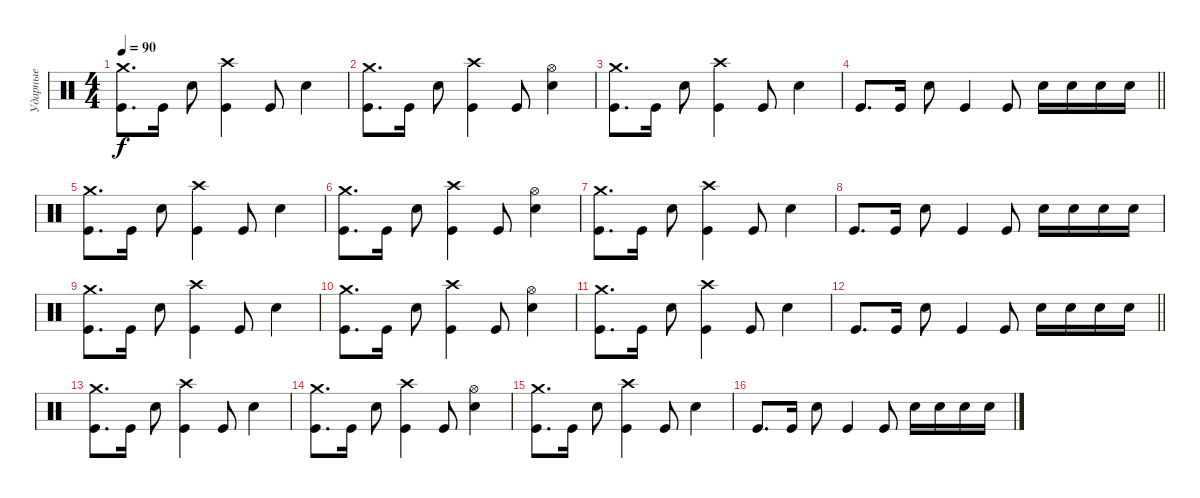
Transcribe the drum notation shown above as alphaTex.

\track ("Ударные" "Ударные") {instrument percussion}
\staff {score}
\articulation defaults
\ts (4 4)
\tempo 90
\clef neutral
\ks c
("Crash medium (hit)" "Kick (hit)").8{d dy f} "Kick (hit)".16 "Snare (hit) 2".8 ("Crash high (hit)" "Kick (hit)").4 "Kick (hit)".8 "Snare (hit) 2".4 |
("Crash medium (hit)" "Kick (hit)").8{d} "Kick (hit)".16 "Snare (hit) 2".8 ("Crash high (hit)" "Kick (hit)").4 "Kick (hit)".8 ("Hi-Hat (open)" "Snare (hit) 2").4 |
("Crash medium (hit)" "Kick (hit)").8{d} "Kick (hit)".16 "Snare (hit) 2".8 ("Crash high (hit)" "Kick (hit)").4 "Kick (hit)".8 "Snare (hit) 2".4 |
\barLineRight lightlight "Kick (hit)".8{d} "Kick (hit)".16 "Snare (hit) 2".8 "Kick (hit)".4 "Kick (hit)".8 "Snare (hit) 2".16 "Snare (hit) 2".16 "Snare (hit) 2".16 "Snare (hit) 2".16
|
("Crash medium (hit)" "Kick (hit)").8{d} "Kick (hit)".16 "Snare (hit) 2".8 ("Crash high (hit)" "Kick (hit)").4 "Kick (hit)".8 "Snare (hit) 2".4 |
("Crash medium (hit)" "Kick (hit)").8{d} "Kick (hit)".16 "Snare (hit) 2".8 ("Crash high (hit)" "Kick (hit)").4 "Kick (hit)".8 ("Hi-Hat (open)" "Snare (hit) 2").4 |
("Crash medium (hit)" "Kick (hit)").8{d} "Kick (hit)".16 "Snare (hit) 2".8 ("Crash high (hit)" "Kick (hit)").4 "Kick (hit)".8 "Snare (hit) 2".4 |
"Kick (hit)".8{d} "Kick (hit)".16 "Snare (hit) 2".8 "Kick (hit)".4 "Kick (hit)".8 "Snare (hit) 2".16 "Snare (hit) 2".16 "Snare (hit) 2".16 "Snare (hit) 2".16 |
("Crash medium (hit)" "Kick (hit)").8{d} "Kick (hit)".16 "Snare (hit) 2".8 ("Crash high (hit)" "Kick (hit)").4 "Kick (hit)".8 "Snare (hit) 2".4 |
("Crash medium (hit)" "Kick (hit)").8{d} "Kick (hit)".16 "Snare (hit) 2".8 ("Crash high (hit)" "Kick (hit)").4 "Kick (hit)".8 ("Hi-Hat (open)" "Snare (hit) 2").4 |
("Crash medium (hit)" "Kick (hit)").8{d} "Kick (hit)".16 "Snare (hit) 2".8 ("Crash high (hit)" "Kick (hit)").4 "Kick (hit)".8 "Snare (hit) 2".4 |
\barLineRight lightlight "Kick (hit)".8{d} "Kick (hit)".16 "Snare (hit) 2".8 "Kick (hit)".4 "Kick (hit)".8 "Snare (hit) 2".16 "Snare (hit) 2".16 "Snare (hit) 2".16 "Snare (hit) 2".16
|
("Crash medium (hit)" "Kick (hit)").8{d} "Kick (hit)".16 "Snare (hit) 2".8 ("Crash high (hit)" "Kick (hit)").4 "Kick (hit)".8 "Snare (hit) 2".4 |
("Crash medium (hit)" "Kick (hit)").8{d} "Kick (hit)".16 "Snare (hit) 2".8 ("Crash high (hit)" "Kick (hit)").4 "Kick (hit)".8 ("Hi-Hat (open)" "Snare (hit) 2").4 |
("Crash medium (hit)" "Kick (hit)").8{d} "Kick (hit)".16 "Snare (hit) 2".8 ("Crash high (hit)" "Kick (hit)").4 "Kick (hit)".8 "Snare (hit) 2".4 |
"Kick (hit)".8{d} "Kick (hit)".16 "Snare (hit) 2".8 "Kick (hit)".4 "Kick (hit)".8 "Snare (hit) 2".16 "Snare (hit) 2".16 "Snare (hit) 2".16 "Snare (hit) 2".16
